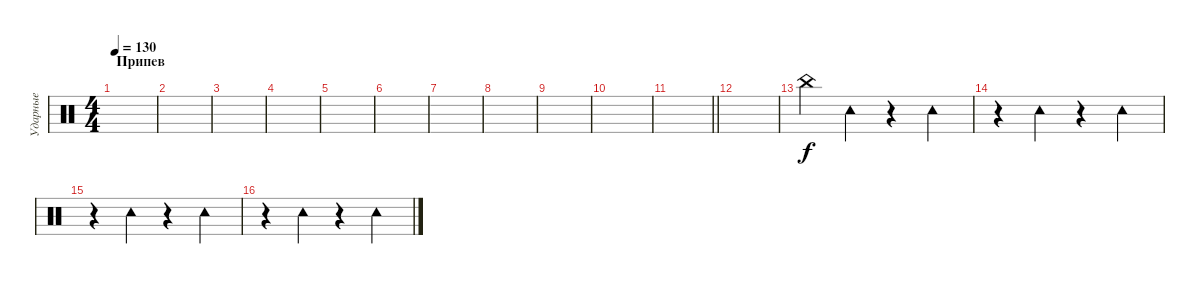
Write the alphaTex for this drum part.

\track ("Ударные" "Ударные") {instrument percussion}
\staff {score}
\articulation defaults
\ts (4 4)
\section ("" "Припев")
\tempo 130
\clef neutral
\ks c
|
|
|
|
|
|
|
|
|
|
\barLineRight lightlight
|
|
"China (hit)".4 "Tambourine (hit)".4 r.4 "Tambourine (hit)".4 |
r.4 "Tambourine (hit)".4 r.4 "Tambourine (hit)".4 |
r.4 "Tambourine (hit)".4 r.4 "Tambourine (hit)".4 |
r.4 "Tambourine (hit)".4 r.4 "Tambourine (hit)".4
